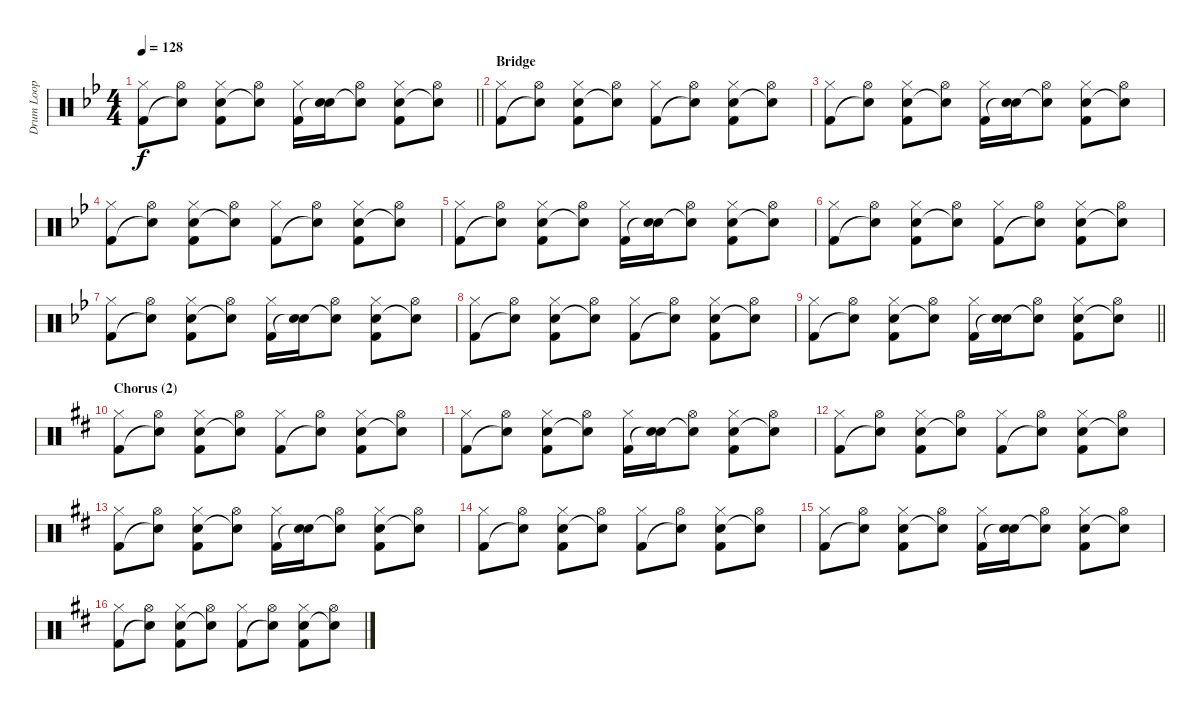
\track ("Drum Loop" "Drum Loop") {instrument percussion}
\staff {score}
\articulation defaults
\ts (4 4)
\tempo 128
\clef neutral
\barLineRight lightlight
\ks gminor
("Hi-Hat (closed)" "Kick (hit) 2").8{dy f} ("Hi-Hat (open)" "Snare (hit)"{t}).8 ("Hi-Hat (closed)" "Electric Snare (hit)" "Kick (hit) 2").8 ("Hi-Hat (open)" "Snare (hit)"{t}).8 ("Hi-Hat (closed)" "Kick (hit) 2").16 ("Electric Snare (hit)" "Snare (hit)"{t}).16 ("Hi-Hat (open)" "Snare (hit)"{t}).8 ("Hi-Hat (closed)" "Electric Snare (hit)" "Kick (hit) 2").8 ("Hi-Hat (open)" "Snare (hit)"{t}).8 |
\section ("" "Bridge")
("Hi-Hat (closed)" "Kick (hit) 2").8 ("Hi-Hat (open)" "Snare (hit)"{t}).8 ("Hi-Hat (closed)" "Electric Snare (hit)" "Kick (hit) 2").8 ("Hi-Hat (open)" "Snare (hit)"{t}).8 ("Hi-Hat (closed)" "Kick (hit) 2").8 ("Hi-Hat (open)" "Snare (hit)"{t}).8 ("Hi-Hat (closed)" "Electric Snare (hit)" "Kick (hit) 2").8 ("Hi-Hat (open)" "Snare (hit)"{t}).8 |
("Hi-Hat (closed)" "Kick (hit) 2").8 ("Hi-Hat (open)" "Snare (hit)"{t}).8 ("Hi-Hat (closed)" "Electric Snare (hit)" "Kick (hit) 2").8 ("Hi-Hat (open)" "Snare (hit)"{t}).8 ("Hi-Hat (closed)" "Kick (hit) 2").16 ("Electric Snare (hit)" "Snare (hit)"{t}).16 ("Hi-Hat (open)" "Snare (hit)"{t}).8 ("Hi-Hat (closed)" "Electric Snare (hit)" "Kick (hit) 2").8 ("Hi-Hat (open)" "Snare (hit)"{t}).8 |
("Hi-Hat (closed)" "Kick (hit) 2").8 ("Hi-Hat (open)" "Snare (hit)"{t}).8 ("Hi-Hat (closed)" "Electric Snare (hit)" "Kick (hit) 2").8 ("Hi-Hat (open)" "Snare (hit)"{t}).8 ("Hi-Hat (closed)" "Kick (hit) 2").8 ("Hi-Hat (open)" "Snare (hit)"{t}).8 ("Hi-Hat (closed)" "Electric Snare (hit)" "Kick (hit) 2").8 ("Hi-Hat (open)" "Snare (hit)"{t}).8 |
("Hi-Hat (closed)" "Kick (hit) 2").8 ("Hi-Hat (open)" "Snare (hit)"{t}).8 ("Hi-Hat (closed)" "Electric Snare (hit)" "Kick (hit) 2").8 ("Hi-Hat (open)" "Snare (hit)"{t}).8 ("Hi-Hat (closed)" "Kick (hit) 2").16 ("Electric Snare (hit)" "Snare (hit)"{t}).16 ("Hi-Hat (open)" "Snare (hit)"{t}).8 ("Hi-Hat (closed)" "Electric Snare (hit)" "Kick (hit) 2").8 ("Hi-Hat (open)" "Snare (hit)"{t}).8 |
("Hi-Hat (closed)" "Kick (hit) 2").8 ("Hi-Hat (open)" "Snare (hit)"{t}).8 ("Hi-Hat (closed)" "Electric Snare (hit)" "Kick (hit) 2").8 ("Hi-Hat (open)" "Snare (hit)"{t}).8 ("Hi-Hat (closed)" "Kick (hit) 2").8 ("Hi-Hat (open)" "Snare (hit)"{t}).8 ("Hi-Hat (closed)" "Electric Snare (hit)" "Kick (hit) 2").8 ("Hi-Hat (open)" "Snare (hit)"{t}).8 |
("Hi-Hat (closed)" "Kick (hit) 2").8 ("Hi-Hat (open)" "Snare (hit)"{t}).8 ("Hi-Hat (closed)" "Electric Snare (hit)" "Kick (hit) 2").8 ("Hi-Hat (open)" "Snare (hit)"{t}).8 ("Hi-Hat (closed)" "Kick (hit) 2").16 ("Electric Snare (hit)" "Snare (hit)"{t}).16 ("Hi-Hat (open)" "Snare (hit)"{t}).8 ("Hi-Hat (closed)" "Electric Snare (hit)" "Kick (hit) 2").8 ("Hi-Hat (open)" "Snare (hit)"{t}).8 |
("Hi-Hat (closed)" "Kick (hit) 2").8 ("Hi-Hat (open)" "Snare (hit)"{t}).8 ("Hi-Hat (closed)" "Electric Snare (hit)" "Kick (hit) 2").8 ("Hi-Hat (open)" "Snare (hit)"{t}).8 ("Hi-Hat (closed)" "Kick (hit) 2").8 ("Hi-Hat (open)" "Snare (hit)"{t}).8 ("Hi-Hat (closed)" "Electric Snare (hit)" "Kick (hit) 2").8 ("Hi-Hat (open)" "Snare (hit)"{t}).8 |
\barLineRight lightlight
("Hi-Hat (closed)" "Kick (hit) 2").8 ("Hi-Hat (open)" "Snare (hit)"{t}).8 ("Hi-Hat (closed)" "Electric Snare (hit)" "Kick (hit) 2").8 ("Hi-Hat (open)" "Snare (hit)"{t}).8 ("Hi-Hat (closed)" "Kick (hit) 2").16 ("Electric Snare (hit)" "Snare (hit)"{t}).16 ("Hi-Hat (open)" "Snare (hit)"{t}).8 ("Hi-Hat (closed)" "Electric Snare (hit)" "Kick (hit) 2").8 ("Hi-Hat (open)" "Snare (hit)"{t}).8 |
\section ("" "Chorus (2)")
\ks d
("Hi-Hat (closed)" "Kick (hit) 2").8 ("Hi-Hat (open)" "Snare (hit)"{t}).8 ("Hi-Hat (closed)" "Electric Snare (hit)" "Kick (hit) 2").8 ("Hi-Hat (open)" "Snare (hit)"{t}).8 ("Hi-Hat (closed)" "Kick (hit) 2").8 ("Hi-Hat (open)" "Snare (hit)"{t}).8 ("Hi-Hat (closed)" "Electric Snare (hit)" "Kick (hit) 2").8 ("Hi-Hat (open)" "Snare (hit)"{t}).8 |
("Hi-Hat (closed)" "Kick (hit) 2").8 ("Hi-Hat (open)" "Snare (hit)"{t}).8 ("Hi-Hat (closed)" "Electric Snare (hit)" "Kick (hit) 2").8 ("Hi-Hat (open)" "Snare (hit)"{t}).8 ("Hi-Hat (closed)" "Kick (hit) 2").16 ("Electric Snare (hit)" "Snare (hit)"{t}).16 ("Hi-Hat (open)" "Snare (hit)"{t}).8 ("Hi-Hat (closed)" "Electric Snare (hit)" "Kick (hit) 2").8 ("Hi-Hat (open)" "Snare (hit)"{t}).8 |
("Hi-Hat (closed)" "Kick (hit) 2").8 ("Hi-Hat (open)" "Snare (hit)"{t}).8 ("Hi-Hat (closed)" "Electric Snare (hit)" "Kick (hit) 2").8 ("Hi-Hat (open)" "Snare (hit)"{t}).8 ("Hi-Hat (closed)" "Kick (hit) 2").8 ("Hi-Hat (open)" "Snare (hit)"{t}).8 ("Hi-Hat (closed)" "Electric Snare (hit)" "Kick (hit) 2").8 ("Hi-Hat (open)" "Snare (hit)"{t}).8 |
("Hi-Hat (closed)" "Kick (hit) 2").8 ("Hi-Hat (open)" "Snare (hit)"{t}).8 ("Hi-Hat (closed)" "Electric Snare (hit)" "Kick (hit) 2").8 ("Hi-Hat (open)" "Snare (hit)"{t}).8 ("Hi-Hat (closed)" "Kick (hit) 2").16 ("Electric Snare (hit)" "Snare (hit)"{t}).16 ("Hi-Hat (open)" "Snare (hit)"{t}).8 ("Hi-Hat (closed)" "Electric Snare (hit)" "Kick (hit) 2").8 ("Hi-Hat (open)" "Snare (hit)"{t}).8 |
("Hi-Hat (closed)" "Kick (hit) 2").8 ("Hi-Hat (open)" "Snare (hit)"{t}).8 ("Hi-Hat (closed)" "Electric Snare (hit)" "Kick (hit) 2").8 ("Hi-Hat (open)" "Snare (hit)"{t}).8 ("Hi-Hat (closed)" "Kick (hit) 2").8 ("Hi-Hat (open)" "Snare (hit)"{t}).8 ("Hi-Hat (closed)" "Electric Snare (hit)" "Kick (hit) 2").8 ("Hi-Hat (open)" "Snare (hit)"{t}).8 |
("Hi-Hat (closed)" "Kick (hit) 2").8 ("Hi-Hat (open)" "Snare (hit)"{t}).8 ("Hi-Hat (closed)" "Electric Snare (hit)" "Kick (hit) 2").8 ("Hi-Hat (open)" "Snare (hit)"{t}).8 ("Hi-Hat (closed)" "Kick (hit) 2").16 ("Electric Snare (hit)" "Snare (hit)"{t}).16 ("Hi-Hat (open)" "Snare (hit)"{t}).8 ("Hi-Hat (closed)" "Electric Snare (hit)" "Kick (hit) 2").8 ("Hi-Hat (open)" "Snare (hit)"{t}).8 |
("Hi-Hat (closed)" "Kick (hit) 2").8 ("Hi-Hat (open)" "Snare (hit)"{t}).8 ("Hi-Hat (closed)" "Electric Snare (hit)" "Kick (hit) 2").8 ("Hi-Hat (open)" "Snare (hit)"{t}).8 ("Hi-Hat (closed)" "Kick (hit) 2").8 ("Hi-Hat (open)" "Snare (hit)"{t}).8 ("Hi-Hat (closed)" "Electric Snare (hit)" "Kick (hit) 2").8 ("Hi-Hat (open)" "Snare (hit)"{t}).8
